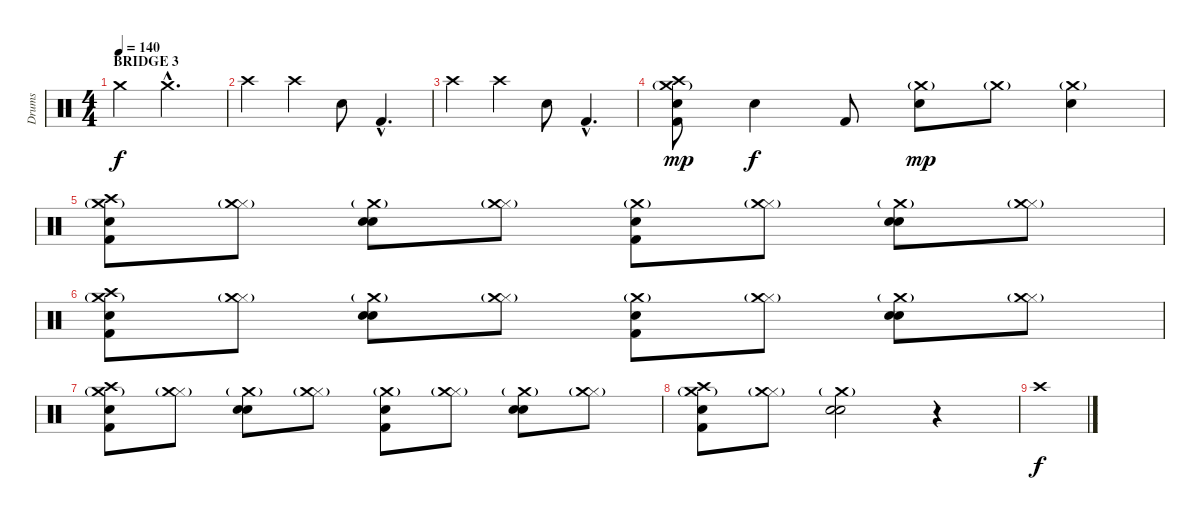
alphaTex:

\track ("Drums" "Drums") {instrument percussion}
\staff {score}
\articulation defaults
\ts (4 4)
\section ("" "BRIDGE 3")
\tempo 140
\clef neutral
\ks c "Crash medium (hit)".4{dy f} "Crash medium (hit)"{hac}.2{d}
|
"Crash high (hit)".4 "Crash high (hit)".4 "Electric Snare (hit)".8 "Kick (hit) 2"{hac}.4{d} |
"Crash high (hit)".4 "Crash high (hit)".4 "Electric Snare (hit)".8 "Kick (hit) 2"{hac}.4{d} |
("Kick (hit) 2" "Hand Clap (hit)" "Crash medium (hit)"{g} "Crash high (hit)").8{dy mp} "Electric Snare (hit)".4{dy f} "Kick (hit) 2".8 ("Electric Snare (hit)" "Crash medium (hit)"{g}).8{dy mp} "Crash medium (hit)"{g}.8 ("Electric Snare (hit)" "Crash medium (hit)"{g}).4 |
("Kick (hit) 2" "Hand Clap (hit)" "Crash medium (hit)"{g} "Crash high (hit)").8 ("Hi-Hat (closed)" "Crash medium (hit)"{g}).8 ("Electric Snare (hit)" "Hand Clap (hit)" "Crash medium (hit)"{g}).8 ("Hi-Hat (closed)" "Crash medium (hit)"{g}).8 ("Kick (hit) 2" "Hand Clap (hit)" "Crash medium (hit)"{g}).8 ("Hi-Hat (closed)" "Crash medium (hit)"{g}).8 ("Electric Snare (hit)" "Hand Clap (hit)" "Crash medium (hit)"{g}).8 ("Hi-Hat (closed)" "Crash medium (hit)"{g}).8 |
("Kick (hit) 2" "Hand Clap (hit)" "Crash medium (hit)"{g} "Crash high (hit)").8 ("Hi-Hat (closed)" "Crash medium (hit)"{g}).8 ("Electric Snare (hit)" "Hand Clap (hit)" "Crash medium (hit)"{g}).8 ("Hi-Hat (closed)" "Crash medium (hit)"{g}).8 ("Kick (hit) 2" "Hand Clap (hit)" "Crash medium (hit)"{g}).8 ("Hi-Hat (closed)" "Crash medium (hit)"{g}).8 ("Electric Snare (hit)" "Hand Clap (hit)" "Crash medium (hit)"{g}).8 ("Hi-Hat (closed)" "Crash medium (hit)"{g}).8 |
("Kick (hit) 2" "Hand Clap (hit)" "Crash medium (hit)"{g} "Crash high (hit)").8 ("Hi-Hat (closed)" "Crash medium (hit)"{g}).8 ("Electric Snare (hit)" "Hand Clap (hit)" "Crash medium (hit)"{g}).8 ("Hi-Hat (closed)" "Crash medium (hit)"{g}).8 ("Kick (hit) 2" "Hand Clap (hit)" "Crash medium (hit)"{g}).8 ("Hi-Hat (closed)" "Crash medium (hit)"{g}).8 ("Electric Snare (hit)" "Hand Clap (hit)" "Crash medium (hit)"{g}).8 ("Hi-Hat (closed)" "Crash medium (hit)"{g}).8 |
("Kick (hit) 2" "Hand Clap (hit)" "Crash medium (hit)"{g} "Crash high (hit)").8 ("Hi-Hat (closed)" "Crash medium (hit)"{g}).8 ("Electric Snare (hit)" "Hand Clap (hit)" "Crash medium (hit)"{g}).2 r.4 |
"Crash high (hit)".1{dy f}
